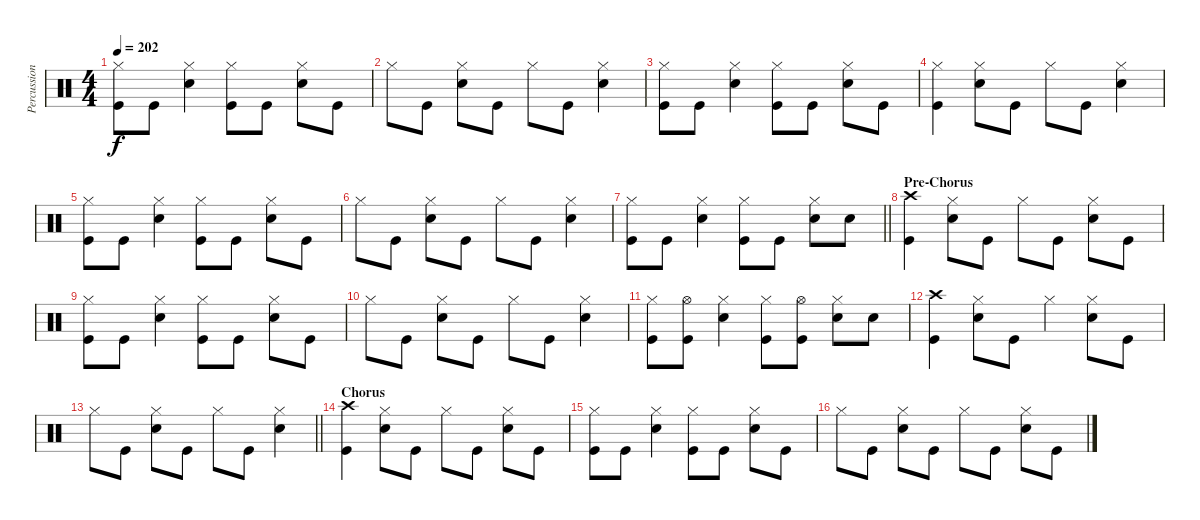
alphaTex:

\track ("Percussion" "Percussion") {instrument percussion}
\staff {score}
\articulation defaults
\ts (4 4)
\tempo 202
\clef neutral
\ks c
("Hi-Hat (closed)" "Kick (hit)").8{dy f} "Kick (hit)".8 ("Hi-Hat (closed)" "Snare (hit) 2").4 ("Hi-Hat (closed)" "Kick (hit)").8 "Kick (hit)".8 ("Hi-Hat (closed)" "Snare (hit) 2").8 "Kick (hit)".8 |
"Hi-Hat (closed)".8 "Kick (hit)".8 ("Hi-Hat (closed)" "Snare (hit) 2").8 "Kick (hit)".8 "Hi-Hat (closed)".8 "Kick (hit)".8 ("Hi-Hat (closed)" "Snare (hit) 2").4 |
("Hi-Hat (closed)" "Kick (hit)").8 "Kick (hit)".8 ("Hi-Hat (closed)" "Snare (hit) 2").4 ("Hi-Hat (closed)" "Kick (hit)").8 "Kick (hit)".8 ("Hi-Hat (closed)" "Snare (hit) 2").8 "Kick (hit)".8 |
("Hi-Hat (closed)" "Kick (hit)").4 ("Hi-Hat (closed)" "Snare (hit) 2").8 "Kick (hit)".8 "Hi-Hat (closed)".8 "Kick (hit)".8 ("Hi-Hat (closed)" "Snare (hit) 2").4 |
("Hi-Hat (closed)" "Kick (hit)").8 "Kick (hit)".8 ("Hi-Hat (closed)" "Snare (hit) 2").4 ("Hi-Hat (closed)" "Kick (hit)").8 "Kick (hit)".8 ("Hi-Hat (closed)" "Snare (hit) 2").8 "Kick (hit)".8 |
"Hi-Hat (closed)".8 "Kick (hit)".8 ("Hi-Hat (closed)" "Snare (hit) 2").8 "Kick (hit)".8 "Hi-Hat (closed)".8 "Kick (hit)".8 ("Hi-Hat (closed)" "Snare (hit) 2").4 |
\barLineRight lightlight
("Hi-Hat (closed)" "Kick (hit)").8 "Kick (hit)".8 ("Hi-Hat (closed)" "Snare (hit) 2").4 ("Hi-Hat (closed)" "Kick (hit)").8 "Kick (hit)".8 ("Hi-Hat (closed)" "Snare (hit) 2").8 "Snare (hit) 2".8 |
\section ("" "Pre-Chorus")
("Crash high (hit)" "Kick (hit)").4 ("Hi-Hat (closed)" "Snare (hit) 2").8 "Kick (hit)".8 "Hi-Hat (closed)".8 "Kick (hit)".8 ("Hi-Hat (closed)" "Snare (hit) 2").8 "Kick (hit)".8 |
("Hi-Hat (closed)" "Kick (hit)").8 "Kick (hit)".8 ("Hi-Hat (closed)" "Snare (hit) 2").4 ("Hi-Hat (closed)" "Kick (hit)").8 "Kick (hit)".8 ("Hi-Hat (closed)" "Snare (hit) 2").8 "Kick (hit)".8 |
"Hi-Hat (closed)".8 "Kick (hit)".8 ("Hi-Hat (closed)" "Snare (hit) 2").8 "Kick (hit)".8 "Hi-Hat (closed)".8 "Kick (hit)".8 ("Hi-Hat (closed)" "Snare (hit) 2").4 |
("Hi-Hat (closed)" "Kick (hit)").8 ("Hi-Hat (open)" "Kick (hit)").8 ("Hi-Hat (closed)" "Snare (hit) 2").4 ("Hi-Hat (closed)" "Kick (hit)").8 ("Hi-Hat (open)" "Kick (hit)").8 ("Hi-Hat (closed)" "Snare (hit) 2").8 "Snare (hit) 2".8 |
("Crash high (hit)" "Kick (hit)").4 ("Hi-Hat (closed)" "Snare (hit) 2").8 "Kick (hit)".8 "Hi-Hat (closed)".4 ("Hi-Hat (closed)" "Snare (hit) 2").8 "Kick (hit)".8 |
\barLineRight lightlight "Hi-Hat (closed)".8 "Kick (hit)".8
("Hi-Hat (closed)" "Snare (hit) 2").8 "Kick (hit)".8 "Hi-Hat (closed)".8 "Kick (hit)".8 ("Hi-Hat (closed)" "Snare (hit) 2").4 |
\section ("" "Chorus")
("Crash high (hit)" "Kick (hit)").4 ("Hi-Hat (closed)" "Snare (hit) 2").8 "Kick (hit)".8 "Hi-Hat (closed)".8 "Kick (hit)".8 ("Hi-Hat (closed)" "Snare (hit) 2").8 "Kick (hit)".8 |
("Hi-Hat (closed)" "Kick (hit)").8 "Kick (hit)".8 ("Hi-Hat (closed)" "Snare (hit) 2").4 ("Hi-Hat (closed)" "Kick (hit)").8 "Kick (hit)".8 ("Hi-Hat (closed)" "Snare (hit) 2").8 "Kick (hit)".8 |
"Hi-Hat (closed)".8 "Kick (hit)".8 ("Hi-Hat (closed)" "Snare (hit) 2").8 "Kick (hit)".8 "Hi-Hat (closed)".8 "Kick (hit)".8 ("Hi-Hat (closed)" "Snare (hit) 2").8 "Kick (hit)".8
